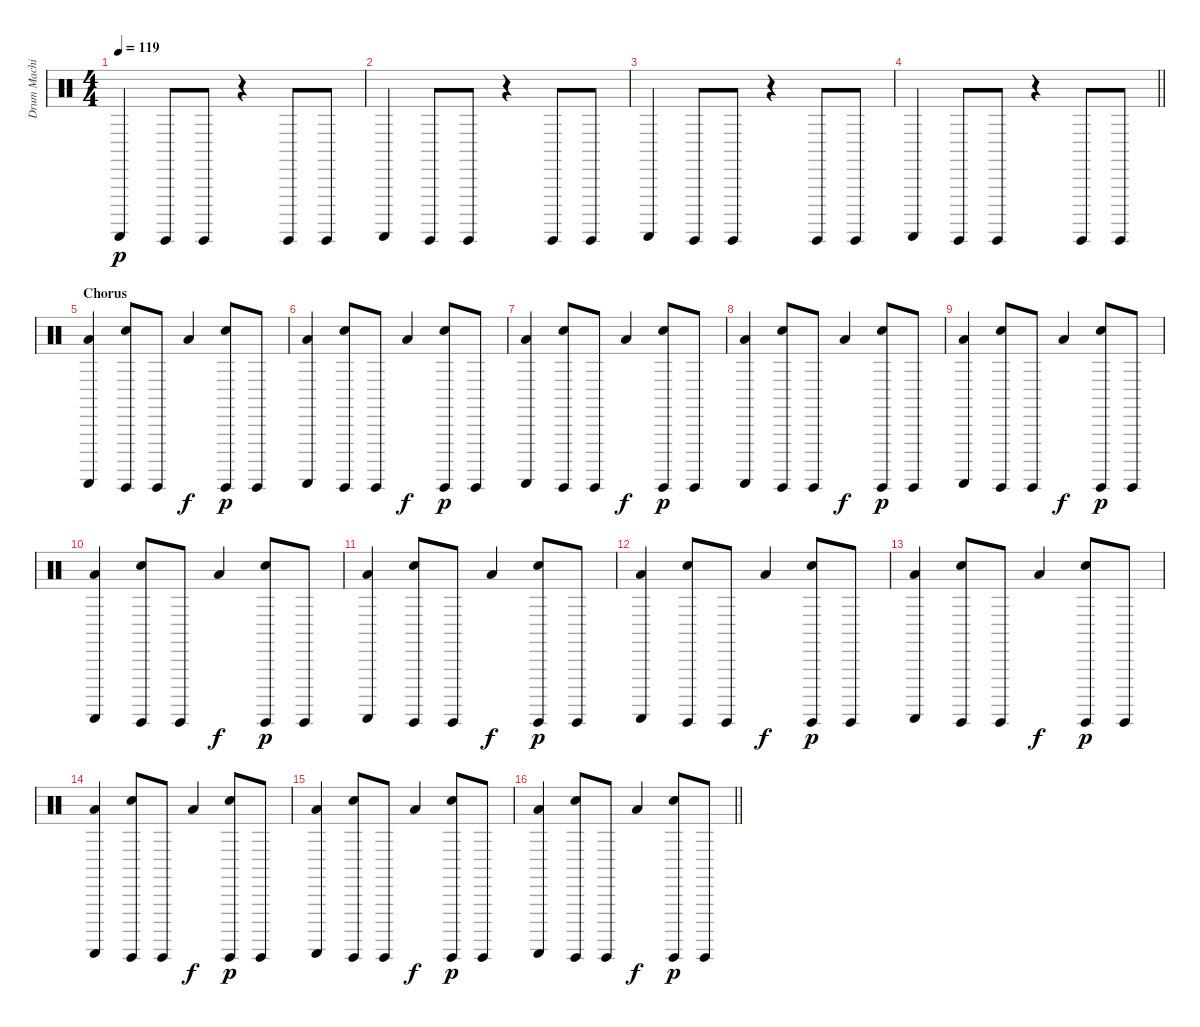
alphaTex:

\track ("Drum Machine" "Drum Machi") {instrument percussion}
\staff {score}
\articulation defaults
\ts (4 4)
\tempo 119
\clef neutral
\ks c "Guiro (scrap-return)".4{dy p} "Guiro (hit)".8 "Guiro (hit)".8
r.4 "Guiro (hit)".8 "Guiro (hit)".8 |
"Guiro (scrap-return)".4 "Guiro (hit)".8 "Guiro (hit)".8 r.4 "Guiro (hit)".8 "Guiro (hit)".8 |
"Guiro (scrap-return)".4 "Guiro (hit)".8 "Guiro (hit)".8 r.4 "Guiro (hit)".8 "Guiro (hit)".8 |
\barLineRight lightlight "Guiro (scrap-return)".4 "Guiro (hit)".8 "Guiro (hit)".8
r.4 "Guiro (hit)".8 "Guiro (hit)".8 |
\section ("" "Chorus")
("Low Floor Tom (hit)" "Guiro (scrap-return)").4 ("Snare (hit) 2" "Guiro (hit)").8 "Guiro (hit)".8 "Low Floor Tom (hit)".4{dy f} ("Snare (hit) 2" "Guiro (hit)").8{dy p} "Guiro (hit)".8 |
("Low Floor Tom (hit)" "Guiro (scrap-return)").4 ("Snare (hit) 2" "Guiro (hit)").8 "Guiro (hit)".8 "Low Floor Tom (hit)".4{dy f} ("Snare (hit) 2" "Guiro (hit)").8{dy p} "Guiro (hit)".8 |
("Low Floor Tom (hit)" "Guiro (scrap-return)").4 ("Snare (hit) 2" "Guiro (hit)").8 "Guiro (hit)".8 "Low Floor Tom (hit)".4{dy f} ("Snare (hit) 2" "Guiro (hit)").8{dy p} "Guiro (hit)".8 |
("Low Floor Tom (hit)" "Guiro (scrap-return)").4 ("Snare (hit) 2" "Guiro (hit)").8 "Guiro (hit)".8 "Low Floor Tom (hit)".4{dy f} ("Snare (hit) 2" "Guiro (hit)").8{dy p} "Guiro (hit)".8 |
("Low Floor Tom (hit)" "Guiro (scrap-return)").4 ("Snare (hit) 2" "Guiro (hit)").8 "Guiro (hit)".8 "Low Floor Tom (hit)".4{dy f} ("Snare (hit) 2" "Guiro (hit)").8{dy p} "Guiro (hit)".8 |
("Low Floor Tom (hit)" "Guiro (scrap-return)").4 ("Snare (hit) 2" "Guiro (hit)").8 "Guiro (hit)".8 "Low Floor Tom (hit)".4{dy f} ("Snare (hit) 2" "Guiro (hit)").8{dy p} "Guiro (hit)".8 |
("Low Floor Tom (hit)" "Guiro (scrap-return)").4 ("Snare (hit) 2" "Guiro (hit)").8 "Guiro (hit)".8 "Low Floor Tom (hit)".4{dy f} ("Snare (hit) 2" "Guiro (hit)").8{dy p} "Guiro (hit)".8 |
("Low Floor Tom (hit)" "Guiro (scrap-return)").4 ("Snare (hit) 2" "Guiro (hit)").8 "Guiro (hit)".8 "Low Floor Tom (hit)".4{dy f} ("Snare (hit) 2" "Guiro (hit)").8{dy p} "Guiro (hit)".8 |
("Low Floor Tom (hit)" "Guiro (scrap-return)").4 ("Snare (hit) 2" "Guiro (hit)").8 "Guiro (hit)".8 "Low Floor Tom (hit)".4{dy f} ("Snare (hit) 2" "Guiro (hit)").8{dy p} "Guiro (hit)".8 |
("Low Floor Tom (hit)" "Guiro (scrap-return)").4 ("Snare (hit) 2" "Guiro (hit)").8 "Guiro (hit)".8 "Low Floor Tom (hit)".4{dy f} ("Snare (hit) 2" "Guiro (hit)").8{dy p} "Guiro (hit)".8 |
("Low Floor Tom (hit)" "Guiro (scrap-return)").4 ("Snare (hit) 2" "Guiro (hit)").8 "Guiro (hit)".8 "Low Floor Tom (hit)".4{dy f} ("Snare (hit) 2" "Guiro (hit)").8{dy p} "Guiro (hit)".8 |
\barLineRight lightlight
("Low Floor Tom (hit)" "Guiro (scrap-return)").4 ("Snare (hit) 2" "Guiro (hit)").8 "Guiro (hit)".8 "Low Floor Tom (hit)".4{dy f} ("Snare (hit) 2" "Guiro (hit)").8{dy p} "Guiro (hit)".8
